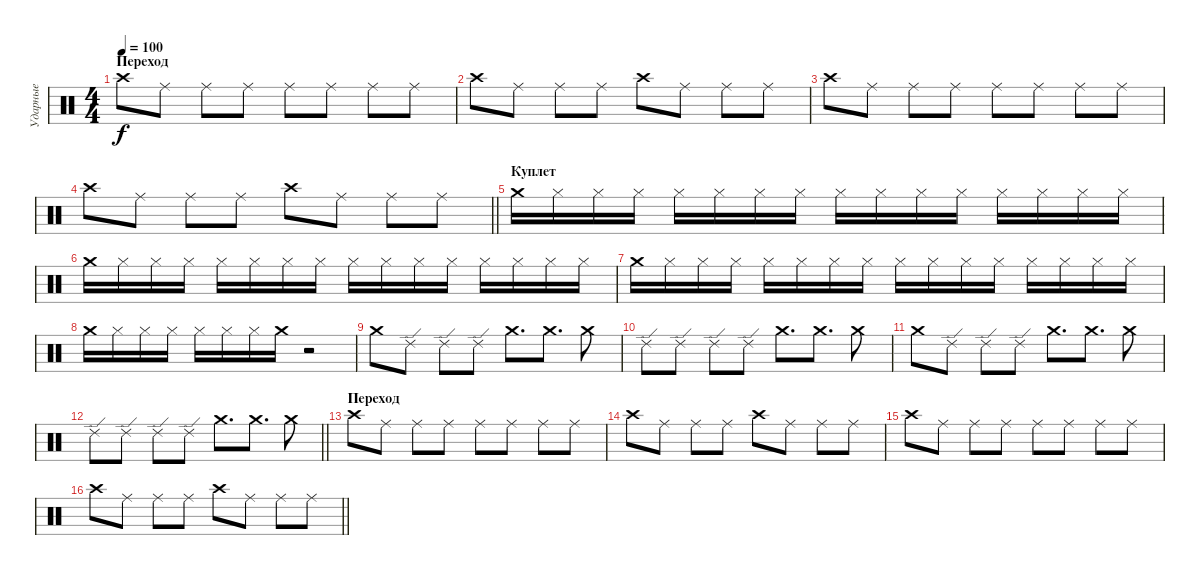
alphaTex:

\track ("Ударные" "Ударные") {instrument percussion}
\staff {score}
\articulation defaults
\ts (4 4)
\section ("" "Переход")
\tempo 100
\clef neutral
\ks c "Crash high (hit)".8{dy f} "Ride (middle)".8 "Ride (middle)".8 "Ride (middle)".8 "Ride (middle)".8 "Ride (middle)".8 "Ride (middle)".8 "Ride (middle)".8
|
"Crash high (hit)".8 "Ride (middle)".8 "Ride (middle)".8 "Ride (middle)".8 "Crash high (hit)".8 "Ride (middle)".8 "Ride (middle)".8 "Ride (middle)".8 |
"Crash high (hit)".8 "Ride (middle)".8 "Ride (middle)".8 "Ride (middle)".8 "Ride (middle)".8 "Ride (middle)".8 "Ride (middle)".8 "Ride (middle)".8 |
\barLineRight lightlight "Crash high (hit)".8 "Ride (middle)".8 "Ride (middle)".8 "Ride (middle)".8 "Crash high (hit)".8 "Ride (middle)".8 "Ride (middle)".8 "Ride (middle)".8
|
\section ("" "Куплет")
"Crash medium (hit)".16 "Hi-Hat (closed)".16 "Hi-Hat (closed)".16 "Hi-Hat (closed)".16 "Hi-Hat (closed)".16 "Hi-Hat (closed)".16 "Hi-Hat (closed)".16 "Hi-Hat (closed)".16 "Hi-Hat (closed)".16 "Hi-Hat (closed)".16 "Hi-Hat (closed)".16 "Hi-Hat (closed)".16 "Hi-Hat (closed)".16 "Hi-Hat (closed)".16 "Hi-Hat (closed)".16 "Hi-Hat (closed)".16 |
"Crash medium (hit)".16 "Hi-Hat (closed)".16 "Hi-Hat (closed)".16 "Hi-Hat (closed)".16 "Hi-Hat (closed)".16 "Hi-Hat (closed)".16 "Hi-Hat (closed)".16 "Hi-Hat (closed)".16 "Hi-Hat (closed)".16 "Hi-Hat (closed)".16 "Hi-Hat (closed)".16 "Hi-Hat (closed)".16 "Hi-Hat (closed)".16 "Hi-Hat (closed)".16 "Hi-Hat (closed)".16 "Hi-Hat (closed)".16 |
"Crash medium (hit)".16 "Hi-Hat (closed)".16 "Hi-Hat (closed)".16 "Hi-Hat (closed)".16 "Hi-Hat (closed)".16 "Hi-Hat (closed)".16 "Hi-Hat (closed)".16 "Hi-Hat (closed)".16 "Hi-Hat (closed)".16 "Hi-Hat (closed)".16 "Hi-Hat (closed)".16 "Hi-Hat (closed)".16 "Hi-Hat (closed)".16 "Hi-Hat (closed)".16 "Hi-Hat (closed)".16 "Hi-Hat (closed)".16 |
"Crash medium (hit)".16 "Hi-Hat (closed)".16 "Hi-Hat (closed)".16 "Hi-Hat (closed)".16 "Hi-Hat (closed)".16 "Hi-Hat (closed)".16 "Hi-Hat (closed)".16 "Crash medium (hit)".16 r.2 |
"Crash medium (hit)".8 "Ride (edge) 2".8 "Ride (edge) 2".8 "Ride (edge) 2".8 "Crash medium (hit)".8{d} "Crash medium (hit)".8{d} "Crash medium (hit)".8 |
"Ride (edge) 2".8 "Ride (edge) 2".8 "Ride (edge) 2".8 "Ride (edge) 2".8 "Crash medium (hit)".8{d} "Crash medium (hit)".8{d} "Crash medium (hit)".8 |
"Crash medium (hit)".8 "Ride (edge) 2".8 "Ride (edge) 2".8 "Ride (edge) 2".8 "Crash medium (hit)".8{d} "Crash medium (hit)".8{d} "Crash medium (hit)".8 |
\barLineRight lightlight "Ride (edge) 2".8 "Ride (edge) 2".8 "Ride (edge) 2".8 "Ride (edge) 2".8 "Crash medium (hit)".8{d} "Crash medium (hit)".8{d} "Crash medium (hit)".8
|
\section ("" "Переход")
"Crash high (hit)".8 "Ride (middle)".8 "Ride (middle)".8 "Ride (middle)".8 "Ride (middle)".8 "Ride (middle)".8 "Ride (middle)".8 "Ride (middle)".8 |
"Crash high (hit)".8 "Ride (middle)".8 "Ride (middle)".8 "Ride (middle)".8 "Crash high (hit)".8 "Ride (middle)".8 "Ride (middle)".8 "Ride (middle)".8 |
"Crash high (hit)".8 "Ride (middle)".8 "Ride (middle)".8 "Ride (middle)".8 "Ride (middle)".8 "Ride (middle)".8 "Ride (middle)".8 "Ride (middle)".8 |
\barLineRight lightlight "Crash high (hit)".8 "Ride (middle)".8 "Ride (middle)".8 "Ride (middle)".8 "Crash high (hit)".8 "Ride (middle)".8 "Ride (middle)".8 "Ride (middle)".8
